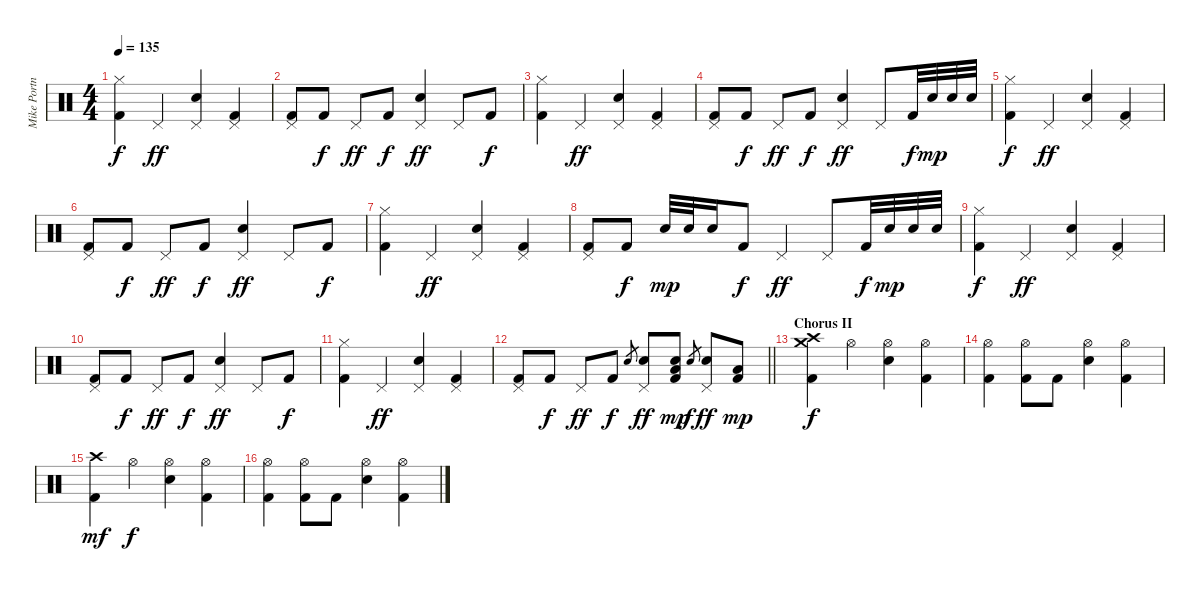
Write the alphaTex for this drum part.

\track ("Mike Portnoy" "Mike Portn") {instrument percussion}
\staff {score}
\articulation defaults
\ts (4 4)
\tempo 135
\clef neutral
\ks c
("Hi-Hat (closed)" "Kick (hit) 2").4{dy f} "Pedal Hi-Hat (hit)".4{dy ff} ("Pedal Hi-Hat (hit)" "Electric Snare (hit)").4 ("Pedal Hi-Hat (hit)" "Kick (hit) 2").4 |
("Pedal Hi-Hat (hit)" "Kick (hit) 2").8 "Kick (hit) 2".8{dy f} "Pedal Hi-Hat (hit)".8{dy ff} "Kick (hit) 2".8{dy f} ("Pedal Hi-Hat (hit)" "Electric Snare (hit)").4{dy ff} "Pedal Hi-Hat (hit)".8 "Kick (hit) 2".8{dy f} |
("Hi-Hat (closed)" "Kick (hit) 2").4 "Pedal Hi-Hat (hit)".4{dy ff} ("Pedal Hi-Hat (hit)" "Electric Snare (hit)").4 ("Pedal Hi-Hat (hit)" "Kick (hit) 2").4 |
("Pedal Hi-Hat (hit)" "Kick (hit) 2").8 "Kick (hit) 2".8{dy f} "Pedal Hi-Hat (hit)".8{dy ff} "Kick (hit) 2".8{dy f} ("Pedal Hi-Hat (hit)" "Electric Snare (hit)").4{dy ff} "Pedal Hi-Hat (hit)".8 "Kick (hit) 2".32{dy f} "Electric Snare (hit)".32{dy mp} "Electric Snare (hit)".32 "Electric Snare (hit)".32 |
("Hi-Hat (closed)" "Kick (hit) 2").4{dy f} "Pedal Hi-Hat (hit)".4{dy ff} ("Pedal Hi-Hat (hit)" "Electric Snare (hit)").4 ("Pedal Hi-Hat (hit)" "Kick (hit) 2").4 |
("Pedal Hi-Hat (hit)" "Kick (hit) 2").8 "Kick (hit) 2".8{dy f} "Pedal Hi-Hat (hit)".8{dy ff} "Kick (hit) 2".8{dy f} ("Pedal Hi-Hat (hit)" "Electric Snare (hit)").4{dy ff} "Pedal Hi-Hat (hit)".8 "Kick (hit) 2".8{dy f} |
("Hi-Hat (closed)" "Kick (hit) 2").4 "Pedal Hi-Hat (hit)".4{dy ff} ("Pedal Hi-Hat (hit)" "Electric Snare (hit)").4 ("Pedal Hi-Hat (hit)" "Kick (hit) 2").4 |
("Pedal Hi-Hat (hit)" "Kick (hit) 2").8 "Kick (hit) 2".8{dy f} "Electric Snare (hit)".32{dy mp} "Electric Snare (hit)".32 "Electric Snare (hit)".16 "Kick (hit) 2".8{dy f} "Pedal Hi-Hat (hit)".4{dy ff} "Pedal Hi-Hat (hit)".8 "Kick (hit) 2".32{dy f} "Electric Snare (hit)".32{dy mp} "Electric Snare (hit)".32 "Electric Snare (hit)".32 |
("Hi-Hat (closed)" "Kick (hit) 2").4{dy f} "Pedal Hi-Hat (hit)".4{dy ff} ("Pedal Hi-Hat (hit)" "Electric Snare (hit)").4 ("Pedal Hi-Hat (hit)" "Kick (hit) 2").4 |
("Pedal Hi-Hat (hit)" "Kick (hit) 2").8 "Kick (hit) 2".8{dy f} "Pedal Hi-Hat (hit)".8{dy ff} "Kick (hit) 2".8{dy f} ("Pedal Hi-Hat (hit)" "Electric Snare (hit)").4{dy ff} "Pedal Hi-Hat (hit)".8 "Kick (hit) 2".8{dy f} |
("Hi-Hat (closed)" "Kick (hit) 2").4 "Pedal Hi-Hat (hit)".4{dy ff} ("Pedal Hi-Hat (hit)" "Electric Snare (hit)").4 ("Pedal Hi-Hat (hit)" "Kick (hit) 2").4 |
\barLineRight lightlight
("Pedal Hi-Hat (hit)" "Kick (hit) 2").8 "Kick (hit) 2".8{dy f} "Pedal Hi-Hat (hit)".8{dy ff} "Kick (hit) 2".8{dy f} "Electric Snare (hit)".8{gr} ("Pedal Hi-Hat (hit)" "Electric Snare (hit)").8{dy ff} ("Electric Snare (hit)" "Low Floor Tom (hit)" "Kick (hit) 2").8{dy mp} "Electric Snare (hit)".8{gr dy f} ("Pedal Hi-Hat (hit)" "Electric Snare (hit)").8{dy ff} ("Low Floor Tom (hit)" "Kick (hit) 2").8{dy mp} |
\section ("" "Chorus II")
("Crash medium (hit)" "Crash high (hit)" "Kick (hit) 2").4{dy f} "Hi-Hat (open)".4 ("Hi-Hat (open)" "Electric Snare (hit)").4 ("Hi-Hat (open)" "Kick (hit) 2").4 |
("Hi-Hat (open)" "Kick (hit) 2").4 ("Hi-Hat (open)" "Kick (hit) 2").8 "Kick (hit) 2".8 ("Hi-Hat (open)" "Electric Snare (hit)").4 ("Hi-Hat (open)" "Kick (hit) 2").4 |
("Crash high (hit)" "Kick (hit) 2").4{dy mf} "Hi-Hat (open)".4{dy f} ("Hi-Hat (open)" "Electric Snare (hit)").4 ("Hi-Hat (open)" "Kick (hit) 2").4 |
("Hi-Hat (open)" "Kick (hit) 2").4 ("Hi-Hat (open)" "Kick (hit) 2").8 "Kick (hit) 2".8 ("Hi-Hat (open)" "Electric Snare (hit)").4 ("Hi-Hat (open)" "Kick (hit) 2").4
